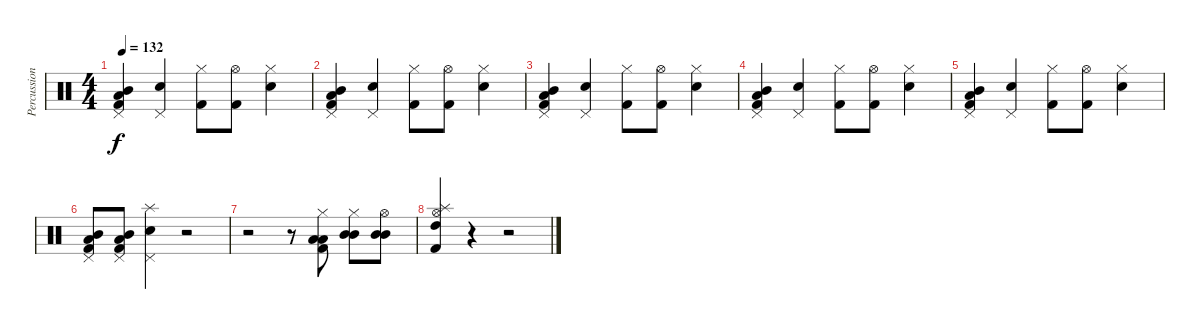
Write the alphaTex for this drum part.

\track ("Percussions" "Percussion") {instrument percussion}
\staff {score}
\articulation defaults
\ts (4 4)
\tempo 132
\clef neutral
\ks c
("Pedal Hi-Hat (hit)" "Mid Tom (hit)" "Low Tom (hit)" "Kick (hit) 2").4{dy f} ("Pedal Hi-Hat (hit)" "Snare (hit) 2").4 ("Hi-Hat (closed)" "Kick (hit) 2").8 ("Hi-Hat (open)" "Kick (hit) 2").8 ("Hi-Hat (closed)" "Snare (hit) 2").4 |
("Pedal Hi-Hat (hit)" "Mid Tom (hit)" "Low Tom (hit)" "Kick (hit) 2").4 ("Pedal Hi-Hat (hit)" "Snare (hit) 2").4 ("Hi-Hat (closed)" "Kick (hit) 2").8 ("Hi-Hat (open)" "Kick (hit) 2").8 ("Hi-Hat (closed)" "Snare (hit) 2").4 |
("Pedal Hi-Hat (hit)" "Mid Tom (hit)" "Low Tom (hit)" "Kick (hit) 2").4 ("Pedal Hi-Hat (hit)" "Snare (hit) 2").4 ("Hi-Hat (closed)" "Kick (hit) 2").8 ("Hi-Hat (open)" "Kick (hit) 2").8 ("Hi-Hat (closed)" "Snare (hit) 2").4 |
("Pedal Hi-Hat (hit)" "Mid Tom (hit)" "Low Tom (hit)" "Kick (hit) 2").4 ("Pedal Hi-Hat (hit)" "Snare (hit) 2").4 ("Hi-Hat (closed)" "Kick (hit) 2").8 ("Hi-Hat (open)" "Kick (hit) 2").8 ("Hi-Hat (closed)" "Snare (hit) 2").4 |
("Pedal Hi-Hat (hit)" "Mid Tom (hit)" "Low Tom (hit)" "Kick (hit) 2").4 ("Pedal Hi-Hat (hit)" "Snare (hit) 2").4 ("Hi-Hat (closed)" "Kick (hit) 2").8 ("Hi-Hat (open)" "Kick (hit) 2").8 ("Hi-Hat (closed)" "Snare (hit) 2").4 |
("Pedal Hi-Hat (hit)" "Mid Tom (hit)" "Low Tom (hit)" "Kick (hit) 2").8 ("Pedal Hi-Hat (hit)" "Mid Tom (hit)" "Low Tom (hit)" "Kick (hit) 2").8 ("Pedal Hi-Hat (hit)" "Splash (hit)" "Snare (hit) 2").4 r.2 |
r.2 r.8 ("Hi-Hat (closed)" "Low Tom (hit)" "Low Tom (hit)" "Kick (hit) 2").8 ("Hi-Hat (closed)" "Mid Tom (hit)" "Mid Tom (hit)").8 ("Hi-Hat (open)" "Mid Tom (hit)" "Mid Tom (hit)").8 |
("Hi-Hat (open)" "Splash (hit)" "High Tom (hit)" "Kick (hit) 2").4 r.4 r.2
